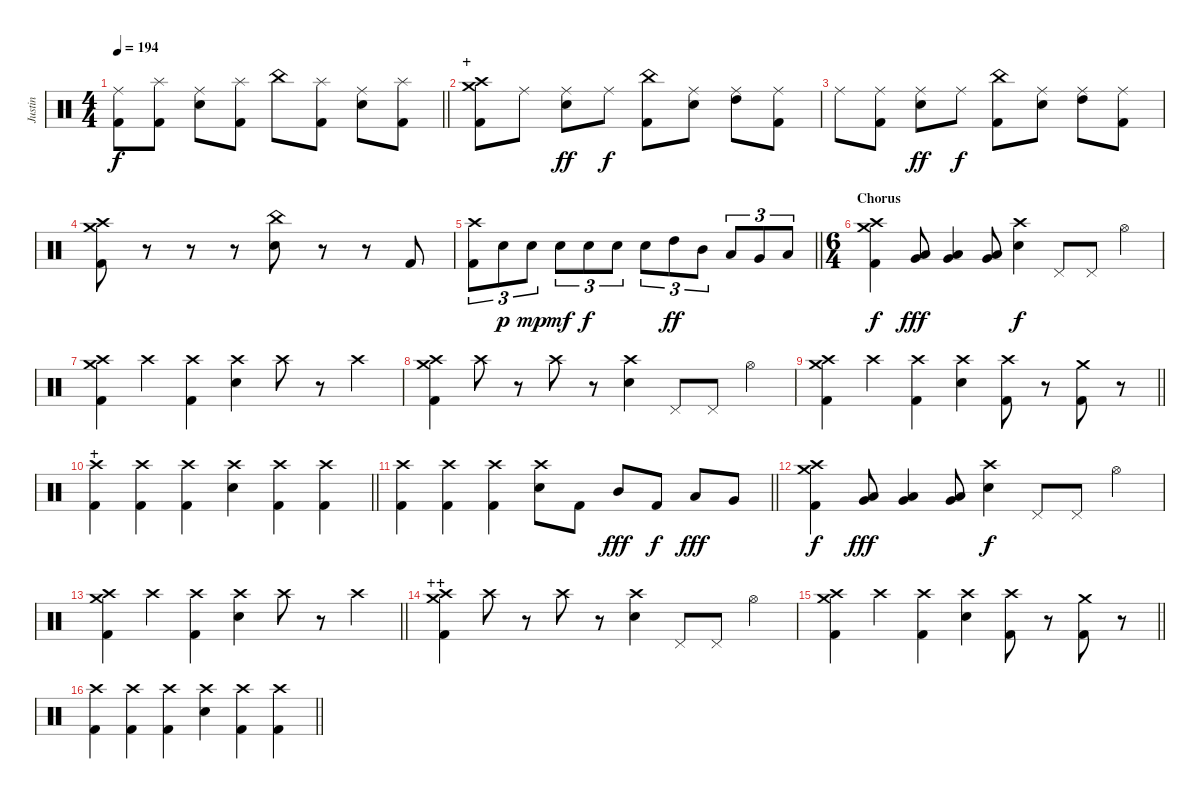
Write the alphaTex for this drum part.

\track ("Justin" "Justin") {instrument percussion}
\staff {score}
\articulation defaults
\ts (4 4)
\tempo 194
\clef neutral
\barLineRight lightlight
\ks c
("Ride (middle)" "Kick (hit) 2").8{dy f} ("Splash (hit)" "Kick (hit) 2").8 ("Ride (middle)" "Electric Snare (hit)").8 ("Splash (hit)" "Kick (hit) 2").8 "China (hit)".8 ("Splash (hit)" "Kick (hit) 2").8 ("Ride (middle)" "Electric Snare (hit)").8 ("Splash (hit)" "Kick (hit) 2").8 |
\section ("" "+")
("Crash medium (hit)" "Crash high (hit)" "Kick (hit) 2").8 "Ride (middle)".8 ("Ride (middle)" "Electric Snare (hit)").8{dy ff} "Ride (middle)".8{dy f} ("China (hit)" "Kick (hit) 2").8 ("Ride (middle)" "Electric Snare (hit)").8 ("Ride (middle)" "High Tom (hit)").8 ("Ride (middle)" "Kick (hit) 2").8 |
"Ride (middle)".8 ("Ride (middle)" "Kick (hit) 2").8 ("Ride (middle)" "Electric Snare (hit)").8{dy ff} "Ride (middle)".8{dy f} ("China (hit)" "Kick (hit) 2").8 ("Ride (middle)" "Electric Snare (hit)").8 ("Ride (middle)" "High Tom (hit)").8 ("Ride (middle)" "Kick (hit) 2").8 |
("Crash medium (hit)" "Crash high (hit)" "Kick (hit) 2").8 r.8 r.8 r.8 ("China (hit)" "Electric Snare (hit)").8 r.8 r.8 "Kick (hit) 2".8 |
\barLineRight lightlight
("Crash high (hit)" "Kick (hit) 2").8{tu (3 2)} "Electric Snare (hit)".8{tu (3 2) dy p} "Electric Snare (hit)".8{tu (3 2) dy mp} "Electric Snare (hit)".8{tu (3 2) dy mf} "Electric Snare (hit)".8{tu (3 2) dy f} "Electric Snare (hit)".8{tu (3 2)} "Electric Snare (hit)".8{tu (3 2)} "High Tom (hit)".8{tu (3 2) dy ff} "Mid Tom (hit)".8{tu (3 2)} "Low Tom (hit)".8{tu (3 2)} "Very Low Tom (hit)".8{tu (3 2)} "Low Floor Tom (hit)".8{tu (3 2)} |
\ts (6 4)
\section ("" "Chorus")
("Crash medium (hit)" "Crash high (hit)" "Kick (hit) 2").4{dy f} ("Low Tom (hit)" "Very Low Tom (hit)").8{dy fff} ("Low Tom (hit)" "Very Low Tom (hit)").4 ("Low Tom (hit)" "Very Low Tom (hit)").8 ("Crash high (hit)" "Electric Snare (hit)").4{dy f} "Pedal Hi-Hat (hit)".8 "Pedal Hi-Hat (hit)".8 "Hi-Hat (open)".4 |
("Crash medium (hit)" "Crash high (hit)" "Kick (hit) 2").4 "Crash high (hit)".4 ("Crash high (hit)" "Kick (hit) 2").4 ("Crash high (hit)" "Electric Snare (hit)").4 "Crash high (hit)".8 r.8 "Crash high (hit)".4 |
("Crash medium (hit)" "Crash high (hit)" "Kick (hit) 2").4 "Crash high (hit)".8 r.8 "Crash high (hit)".8 r.8 ("Crash high (hit)" "Electric Snare (hit)").4 "Pedal Hi-Hat (hit)".8 "Pedal Hi-Hat (hit)".8 "Hi-Hat (open)".4 |
\barLineRight lightlight
("Crash medium (hit)" "Crash high (hit)" "Kick (hit) 2").4 "Crash high (hit)".4 ("Crash high (hit)" "Kick (hit) 2").4 ("Crash high (hit)" "Electric Snare (hit)").4 ("Crash high (hit)" "Kick (hit) 2").8 r.8 ("Crash medium (hit)" "Kick (hit) 2").8 r.8 |
\section ("" "+")
\barLineRight lightlight
("Crash high (hit)" "Kick (hit) 2").4 ("Crash high (hit)" "Kick (hit) 2").4 ("Crash high (hit)" "Kick (hit) 2").4 ("Crash high (hit)" "Electric Snare (hit)").4 ("Crash high (hit)" "Kick (hit) 2").4 ("Crash high (hit)" "Kick (hit) 2").4 |
\barLineRight lightlight
("Crash high (hit)" "Kick (hit) 2").4 ("Crash high (hit)" "Kick (hit) 2").4 ("Crash high (hit)" "Kick (hit) 2").4 ("Crash high (hit)" "Electric Snare (hit)").8 "Kick (hit) 2".8 "Mid Tom (hit)".8{dy fff} "Kick (hit) 2".8{dy f} "Low Tom (hit)".8{dy fff} "Very Low Tom (hit)".8 |
("Crash medium (hit)" "Crash high (hit)" "Kick (hit) 2").4{dy f} ("Low Tom (hit)" "Very Low Tom (hit)").8{dy fff} ("Low Tom (hit)" "Very Low Tom (hit)").4 ("Low Tom (hit)" "Very Low Tom (hit)").8 ("Crash high (hit)" "Electric Snare (hit)").4{dy f} "Pedal Hi-Hat (hit)".8 "Pedal Hi-Hat (hit)".8 "Hi-Hat (open)".4 |
\barLineRight lightlight
("Crash medium (hit)" "Crash high (hit)" "Kick (hit) 2").4 "Crash high (hit)".4 ("Crash high (hit)" "Kick (hit) 2").4 ("Crash high (hit)" "Electric Snare (hit)").4 "Crash high (hit)".8 r.8 "Crash high (hit)".4 |
\section ("" "++")
("Crash medium (hit)" "Crash high (hit)" "Kick (hit) 2").4 "Crash high (hit)".8 r.8 "Crash high (hit)".8 r.8 ("Crash high (hit)" "Electric Snare (hit)").4 "Pedal Hi-Hat (hit)".8 "Pedal Hi-Hat (hit)".8 "Hi-Hat (open)".4 |
\barLineRight lightlight
("Crash medium (hit)" "Crash high (hit)" "Kick (hit) 2").4 "Crash high (hit)".4 ("Crash high (hit)" "Kick (hit) 2").4 ("Crash high (hit)" "Electric Snare (hit)").4 ("Crash high (hit)" "Kick (hit) 2").8 r.8 ("Crash medium (hit)" "Kick (hit) 2").8 r.8 |
\barLineRight lightlight
("Crash high (hit)" "Kick (hit) 2").4 ("Crash high (hit)" "Kick (hit) 2").4 ("Crash high (hit)" "Kick (hit) 2").4 ("Crash high (hit)" "Electric Snare (hit)").4 ("Crash high (hit)" "Kick (hit) 2").4 ("Crash high (hit)" "Kick (hit) 2").4
